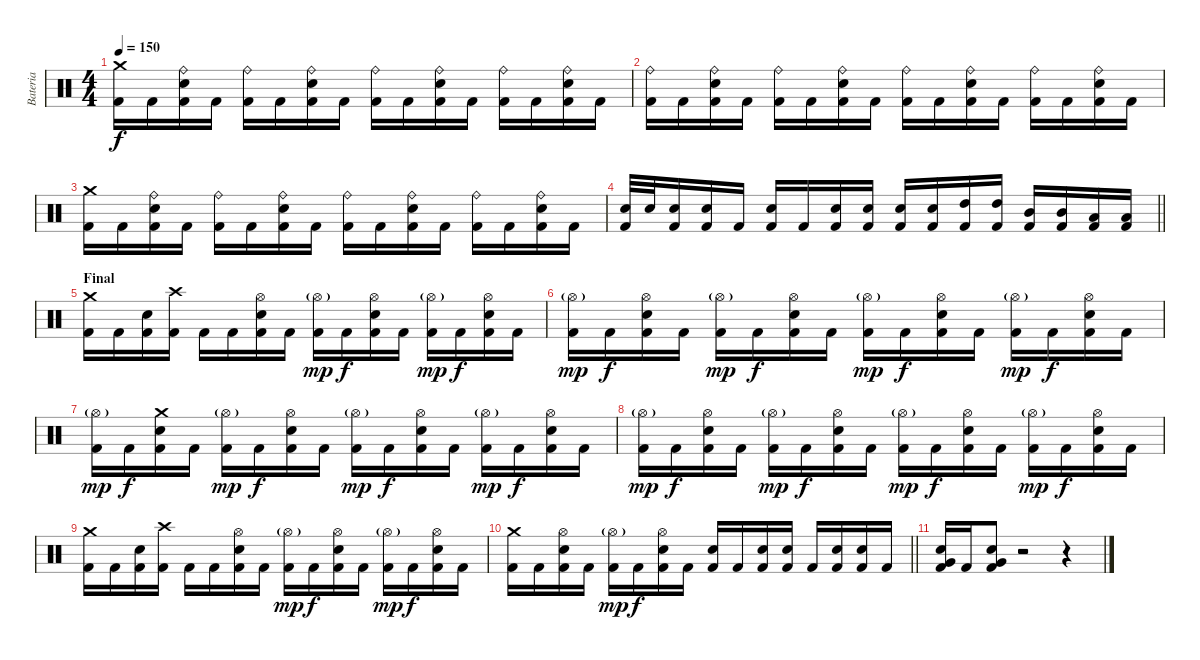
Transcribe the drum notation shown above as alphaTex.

\track ("Bateria" "Bateria") {instrument percussion}
\staff {score}
\articulation defaults
\ts (4 4)
\tempo 150
\clef neutral
\ks c
("Crash medium (hit)" "Kick (hit) 2").16{dy f} "Kick (hit) 2".16 ("Ride (bell)" "Electric Snare (hit)" "Kick (hit) 2").16 "Kick (hit) 2".16 ("Ride (bell)" "Kick (hit) 2").16 "Kick (hit) 2".16 ("Ride (bell)" "Electric Snare (hit)" "Kick (hit) 2").16 "Kick (hit) 2".16 ("Ride (bell)" "Kick (hit) 2").16 "Kick (hit) 2".16 ("Ride (bell)" "Electric Snare (hit)" "Kick (hit) 2").16 "Kick (hit) 2".16 ("Ride (bell)" "Kick (hit) 2").16 "Kick (hit) 2".16 ("Ride (bell)" "Electric Snare (hit)" "Kick (hit) 2").16 "Kick (hit) 2".16 |
("Ride (bell)" "Kick (hit) 2").16 "Kick (hit) 2".16 ("Ride (bell)" "Electric Snare (hit)" "Kick (hit) 2").16 "Kick (hit) 2".16 ("Ride (bell)" "Kick (hit) 2").16 "Kick (hit) 2".16 ("Ride (bell)" "Electric Snare (hit)" "Kick (hit) 2").16 "Kick (hit) 2".16 ("Ride (bell)" "Kick (hit) 2").16 "Kick (hit) 2".16 ("Ride (bell)" "Electric Snare (hit)" "Kick (hit) 2").16 "Kick (hit) 2".16 ("Ride (bell)" "Kick (hit) 2").16 "Kick (hit) 2".16 ("Ride (bell)" "Electric Snare (hit)" "Kick (hit) 2").16 "Kick (hit) 2".16 |
("Crash medium (hit)" "Kick (hit) 2").16 "Kick (hit) 2".16 ("Ride (bell)" "Electric Snare (hit)" "Kick (hit) 2").16 "Kick (hit) 2".16 ("Ride (bell)" "Kick (hit) 2").16 "Kick (hit) 2".16 ("Ride (bell)" "Electric Snare (hit)" "Kick (hit) 2").16 "Kick (hit) 2".16 ("Ride (bell)" "Kick (hit) 2").16 "Kick (hit) 2".16 ("Ride (bell)" "Electric Snare (hit)" "Kick (hit) 2").16 "Kick (hit) 2".16 ("Ride (bell)" "Kick (hit) 2").16 "Kick (hit) 2".16 ("Ride (bell)" "Electric Snare (hit)" "Kick (hit) 2").16 "Kick (hit) 2".16 |
\barLineRight lightlight
("Electric Snare (hit)" "Kick (hit) 2").32 "Electric Snare (hit)".32 ("Electric Snare (hit)" "Kick (hit) 2").16 ("Electric Snare (hit)" "Kick (hit) 2").16 "Kick (hit) 2".16 ("Electric Snare (hit)" "Kick (hit) 2").16 "Kick (hit) 2".16 ("Electric Snare (hit)" "Kick (hit) 2").16 ("Electric Snare (hit)" "Kick (hit) 2").16 ("Electric Snare (hit)" "Kick (hit) 2").16 ("Electric Snare (hit)" "Kick (hit) 2").16 ("High Tom (hit)" "Kick (hit) 2").16 ("High Tom (hit)" "Kick (hit) 2").16 ("Mid Tom (hit)" "Kick (hit) 2").16 ("Mid Tom (hit)" "Kick (hit) 2").16 ("Low Tom (hit)" "Kick (hit) 2").16 ("Low Tom (hit)" "Kick (hit) 2").16 |
\section ("" "Final")
("Crash medium (hit)" "Kick (hit) 2").16 "Kick (hit) 2".16 ("Electric Snare (hit)" "Kick (hit) 2").16 ("Crash high (hit)" "Kick (hit) 2").16 "Kick (hit) 2".16 "Kick (hit) 2".16 ("Hi-Hat (open)" "Electric Snare (hit)" "Kick (hit) 2").16 "Kick (hit) 2".16 ("Hi-Hat (open)"{g} "Kick (hit) 2").16{dy mp} "Kick (hit) 2".16{dy f} ("Hi-Hat (open)" "Electric Snare (hit)" "Kick (hit) 2").16 "Kick (hit) 2".16 ("Hi-Hat (open)"{g} "Kick (hit) 2").16{dy mp} "Kick (hit) 2".16{dy f} ("Hi-Hat (open)" "Electric Snare (hit)" "Kick (hit) 2").16 "Kick (hit) 2".16 |
("Hi-Hat (open)"{g} "Kick (hit) 2").16{dy mp} "Kick (hit) 2".16{dy f} ("Hi-Hat (open)" "Electric Snare (hit)" "Kick (hit) 2").16 "Kick (hit) 2".16 ("Hi-Hat (open)"{g} "Kick (hit) 2").16{dy mp} "Kick (hit) 2".16{dy f} ("Hi-Hat (open)" "Electric Snare (hit)" "Kick (hit) 2").16 "Kick (hit) 2".16 ("Hi-Hat (open)"{g} "Kick (hit) 2").16{dy mp} "Kick (hit) 2".16{dy f} ("Hi-Hat (open)" "Electric Snare (hit)" "Kick (hit) 2").16 "Kick (hit) 2".16 ("Hi-Hat (open)"{g} "Kick (hit) 2").16{dy mp} "Kick (hit) 2".16{dy f} ("Hi-Hat (open)" "Electric Snare (hit)" "Kick (hit) 2").16 "Kick (hit) 2".16 |
("Hi-Hat (open)"{g} "Kick (hit) 2").16{dy mp} "Kick (hit) 2".16{dy f} ("Crash medium (hit)" "Electric Snare (hit)" "Kick (hit) 2").16 "Kick (hit) 2".16 ("Hi-Hat (open)"{g} "Kick (hit) 2").16{dy mp} "Kick (hit) 2".16{dy f} ("Hi-Hat (open)" "Electric Snare (hit)" "Kick (hit) 2").16 "Kick (hit) 2".16 ("Hi-Hat (open)"{g} "Kick (hit) 2").16{dy mp} "Kick (hit) 2".16{dy f} ("Hi-Hat (open)" "Electric Snare (hit)" "Kick (hit) 2").16 "Kick (hit) 2".16 ("Hi-Hat (open)"{g} "Kick (hit) 2").16{dy mp} "Kick (hit) 2".16{dy f} ("Hi-Hat (open)" "Electric Snare (hit)" "Kick (hit) 2").16 "Kick (hit) 2".16 |
("Hi-Hat (open)"{g} "Kick (hit) 2").16{dy mp} "Kick (hit) 2".16{dy f} ("Hi-Hat (open)" "Electric Snare (hit)" "Kick (hit) 2").16 "Kick (hit) 2".16 ("Hi-Hat (open)"{g} "Kick (hit) 2").16{dy mp} "Kick (hit) 2".16{dy f} ("Hi-Hat (open)" "Electric Snare (hit)" "Kick (hit) 2").16 "Kick (hit) 2".16 ("Hi-Hat (open)"{g} "Kick (hit) 2").16{dy mp} "Kick (hit) 2".16{dy f} ("Hi-Hat (open)" "Electric Snare (hit)" "Kick (hit) 2").16 "Kick (hit) 2".16 ("Hi-Hat (open)"{g} "Kick (hit) 2").16{dy mp} "Kick (hit) 2".16{dy f} ("Hi-Hat (open)" "Electric Snare (hit)" "Kick (hit) 2").16 "Kick (hit) 2".16 |
("Crash medium (hit)" "Kick (hit) 2").16 "Kick (hit) 2".16 ("Electric Snare (hit)" "Kick (hit) 2").16 ("Crash high (hit)" "Kick (hit) 2").16 "Kick (hit) 2".16 "Kick (hit) 2".16 ("Hi-Hat (open)" "Electric Snare (hit)" "Kick (hit) 2").16 "Kick (hit) 2".16 ("Hi-Hat (open)"{g} "Kick (hit) 2").16{dy mp} "Kick (hit) 2".16{dy f} ("Hi-Hat (open)" "Electric Snare (hit)" "Kick (hit) 2").16 "Kick (hit) 2".16 ("Hi-Hat (open)"{g} "Kick (hit) 2").16{dy mp} "Kick (hit) 2".16{dy f} ("Hi-Hat (open)" "Electric Snare (hit)" "Kick (hit) 2").16 "Kick (hit) 2".16 |
\barLineRight lightlight
("Crash medium (hit)" "Kick (hit) 2").16 "Kick (hit) 2".16 ("Hi-Hat (open)" "Electric Snare (hit)" "Kick (hit) 2").16 "Kick (hit) 2".16 ("Hi-Hat (open)"{g} "Kick (hit) 2").16{dy mp} "Kick (hit) 2".16{dy f} ("Hi-Hat (open)" "Electric Snare (hit)" "Kick (hit) 2").16 "Kick (hit) 2".16 ("Electric Snare (hit)" "Kick (hit) 2").16 "Kick (hit) 2".16 ("Electric Snare (hit)" "Kick (hit) 2").16 ("Electric Snare (hit)" "Kick (hit) 2").16 "Kick (hit) 2".16 ("Electric Snare (hit)" "Kick (hit) 2").16 ("Electric Snare (hit)" "Kick (hit) 2").16 "Kick (hit) 2".16 |
("Electric Snare (hit)" "Very Low Tom (hit)" "Kick (hit) 2").16 "Kick (hit) 2".16 ("Electric Snare (hit)" "Very Low Tom (hit)" "Kick (hit) 2").8 r.2 r.4
